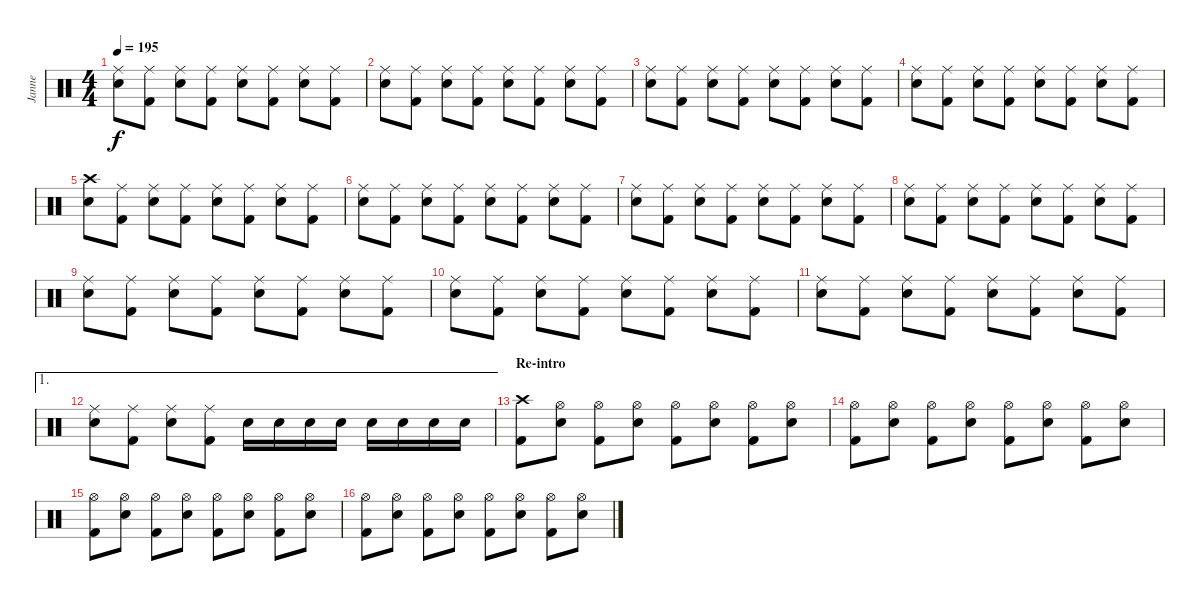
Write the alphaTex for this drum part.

\track ("Janne" "Janne") {instrument percussion}
\staff {score}
\articulation defaults
\ts (4 4)
\tempo 195
\clef neutral
\ks c
("Ride (middle)" "Electric Snare (hit)").8{dy f} ("Ride (middle)" "Kick (hit) 2").8 ("Ride (middle)" "Electric Snare (hit)").8 ("Ride (middle)" "Kick (hit) 2").8 ("Ride (middle)" "Electric Snare (hit)").8 ("Ride (middle)" "Kick (hit) 2").8 ("Ride (middle)" "Electric Snare (hit)").8 ("Ride (middle)" "Kick (hit) 2").8 |
("Ride (middle)" "Electric Snare (hit)").8 ("Ride (middle)" "Kick (hit) 2").8 ("Ride (middle)" "Electric Snare (hit)").8 ("Ride (middle)" "Kick (hit) 2").8 ("Ride (middle)" "Electric Snare (hit)").8 ("Ride (middle)" "Kick (hit) 2").8 ("Ride (middle)" "Electric Snare (hit)").8 ("Ride (middle)" "Kick (hit) 2").8 |
("Ride (middle)" "Electric Snare (hit)").8 ("Ride (middle)" "Kick (hit) 2").8 ("Ride (middle)" "Electric Snare (hit)").8 ("Ride (middle)" "Kick (hit) 2").8 ("Ride (middle)" "Electric Snare (hit)").8 ("Ride (middle)" "Kick (hit) 2").8 ("Ride (middle)" "Electric Snare (hit)").8 ("Ride (middle)" "Kick (hit) 2").8 |
("Ride (middle)" "Electric Snare (hit)").8 ("Ride (middle)" "Kick (hit) 2").8 ("Ride (middle)" "Electric Snare (hit)").8 ("Ride (middle)" "Kick (hit) 2").8 ("Ride (middle)" "Electric Snare (hit)").8 ("Ride (middle)" "Kick (hit) 2").8 ("Ride (middle)" "Electric Snare (hit)").8 ("Ride (middle)" "Kick (hit) 2").8 |
("Crash high (hit)" "Electric Snare (hit)").8 ("Ride (middle)" "Kick (hit) 2").8 ("Ride (middle)" "Electric Snare (hit)").8 ("Ride (middle)" "Kick (hit) 2").8 ("Ride (middle)" "Electric Snare (hit)").8 ("Ride (middle)" "Kick (hit) 2").8 ("Ride (middle)" "Electric Snare (hit)").8 ("Ride (middle)" "Kick (hit) 2").8 |
("Ride (middle)" "Electric Snare (hit)").8 ("Ride (middle)" "Kick (hit) 2").8 ("Ride (middle)" "Electric Snare (hit)").8 ("Ride (middle)" "Kick (hit) 2").8 ("Ride (middle)" "Electric Snare (hit)").8 ("Ride (middle)" "Kick (hit) 2").8 ("Ride (middle)" "Electric Snare (hit)").8 ("Ride (middle)" "Kick (hit) 2").8 |
("Ride (middle)" "Electric Snare (hit)").8 ("Ride (middle)" "Kick (hit) 2").8 ("Ride (middle)" "Electric Snare (hit)").8 ("Ride (middle)" "Kick (hit) 2").8 ("Ride (middle)" "Electric Snare (hit)").8 ("Ride (middle)" "Kick (hit) 2").8 ("Ride (middle)" "Electric Snare (hit)").8 ("Ride (middle)" "Kick (hit) 2").8 |
("Ride (middle)" "Electric Snare (hit)").8 ("Ride (middle)" "Kick (hit) 2").8 ("Ride (middle)" "Electric Snare (hit)").8 ("Ride (middle)" "Kick (hit) 2").8 ("Ride (middle)" "Electric Snare (hit)").8 ("Ride (middle)" "Kick (hit) 2").8 ("Ride (middle)" "Electric Snare (hit)").8 ("Ride (middle)" "Kick (hit) 2").8 |
("Ride (middle)" "Electric Snare (hit)").8 ("Ride (middle)" "Kick (hit) 2").8 ("Ride (middle)" "Electric Snare (hit)").8 ("Ride (middle)" "Kick (hit) 2").8 ("Ride (middle)" "Electric Snare (hit)").8 ("Ride (middle)" "Kick (hit) 2").8 ("Ride (middle)" "Electric Snare (hit)").8 ("Ride (middle)" "Kick (hit) 2").8 |
("Ride (middle)" "Electric Snare (hit)").8 ("Ride (middle)" "Kick (hit) 2").8 ("Ride (middle)" "Electric Snare (hit)").8 ("Ride (middle)" "Kick (hit) 2").8 ("Ride (middle)" "Electric Snare (hit)").8 ("Ride (middle)" "Kick (hit) 2").8 ("Ride (middle)" "Electric Snare (hit)").8 ("Ride (middle)" "Kick (hit) 2").8 |
("Ride (middle)" "Electric Snare (hit)").8 ("Ride (middle)" "Kick (hit) 2").8 ("Ride (middle)" "Electric Snare (hit)").8 ("Ride (middle)" "Kick (hit) 2").8 ("Ride (middle)" "Electric Snare (hit)").8 ("Ride (middle)" "Kick (hit) 2").8 ("Ride (middle)" "Electric Snare (hit)").8 ("Ride (middle)" "Kick (hit) 2").8 |
\ae 1
("Ride (middle)" "Electric Snare (hit)").8 ("Ride (middle)" "Kick (hit) 2").8 ("Ride (middle)" "Electric Snare (hit)").8 ("Ride (middle)" "Kick (hit) 2").8 "Electric Snare (hit)".16 "Electric Snare (hit)".16 "Electric Snare (hit)".16 "Electric Snare (hit)".16 "Electric Snare (hit)".16 "Electric Snare (hit)".16 "Electric Snare (hit)".16 "Electric Snare (hit)".16 |
\section ("" "Re-intro")
("Crash high (hit)" "Kick (hit) 2").8 ("Hi-Hat (open)" "Electric Snare (hit)").8 ("Hi-Hat (open)" "Kick (hit) 2").8 ("Hi-Hat (open)" "Electric Snare (hit)").8 ("Hi-Hat (open)" "Kick (hit) 2").8 ("Hi-Hat (open)" "Electric Snare (hit)").8 ("Hi-Hat (open)" "Kick (hit) 2").8 ("Hi-Hat (open)" "Electric Snare (hit)").8 |
("Hi-Hat (open)" "Kick (hit) 2").8 ("Hi-Hat (open)" "Electric Snare (hit)").8 ("Hi-Hat (open)" "Kick (hit) 2").8 ("Hi-Hat (open)" "Electric Snare (hit)").8 ("Hi-Hat (open)" "Kick (hit) 2").8 ("Hi-Hat (open)" "Electric Snare (hit)").8 ("Hi-Hat (open)" "Kick (hit) 2").8 ("Hi-Hat (open)" "Electric Snare (hit)").8 |
("Hi-Hat (open)" "Kick (hit) 2").8 ("Hi-Hat (open)" "Electric Snare (hit)").8 ("Hi-Hat (open)" "Kick (hit) 2").8 ("Hi-Hat (open)" "Electric Snare (hit)").8 ("Hi-Hat (open)" "Kick (hit) 2").8 ("Hi-Hat (open)" "Electric Snare (hit)").8 ("Hi-Hat (open)" "Kick (hit) 2").8 ("Hi-Hat (open)" "Electric Snare (hit)").8 |
("Hi-Hat (open)" "Kick (hit) 2").8 ("Hi-Hat (open)" "Electric Snare (hit)").8 ("Hi-Hat (open)" "Kick (hit) 2").8 ("Hi-Hat (open)" "Electric Snare (hit)").8 ("Hi-Hat (open)" "Kick (hit) 2").8 ("Hi-Hat (open)" "Electric Snare (hit)").8 ("Hi-Hat (open)" "Kick (hit) 2").8 ("Hi-Hat (open)" "Electric Snare (hit)").8
